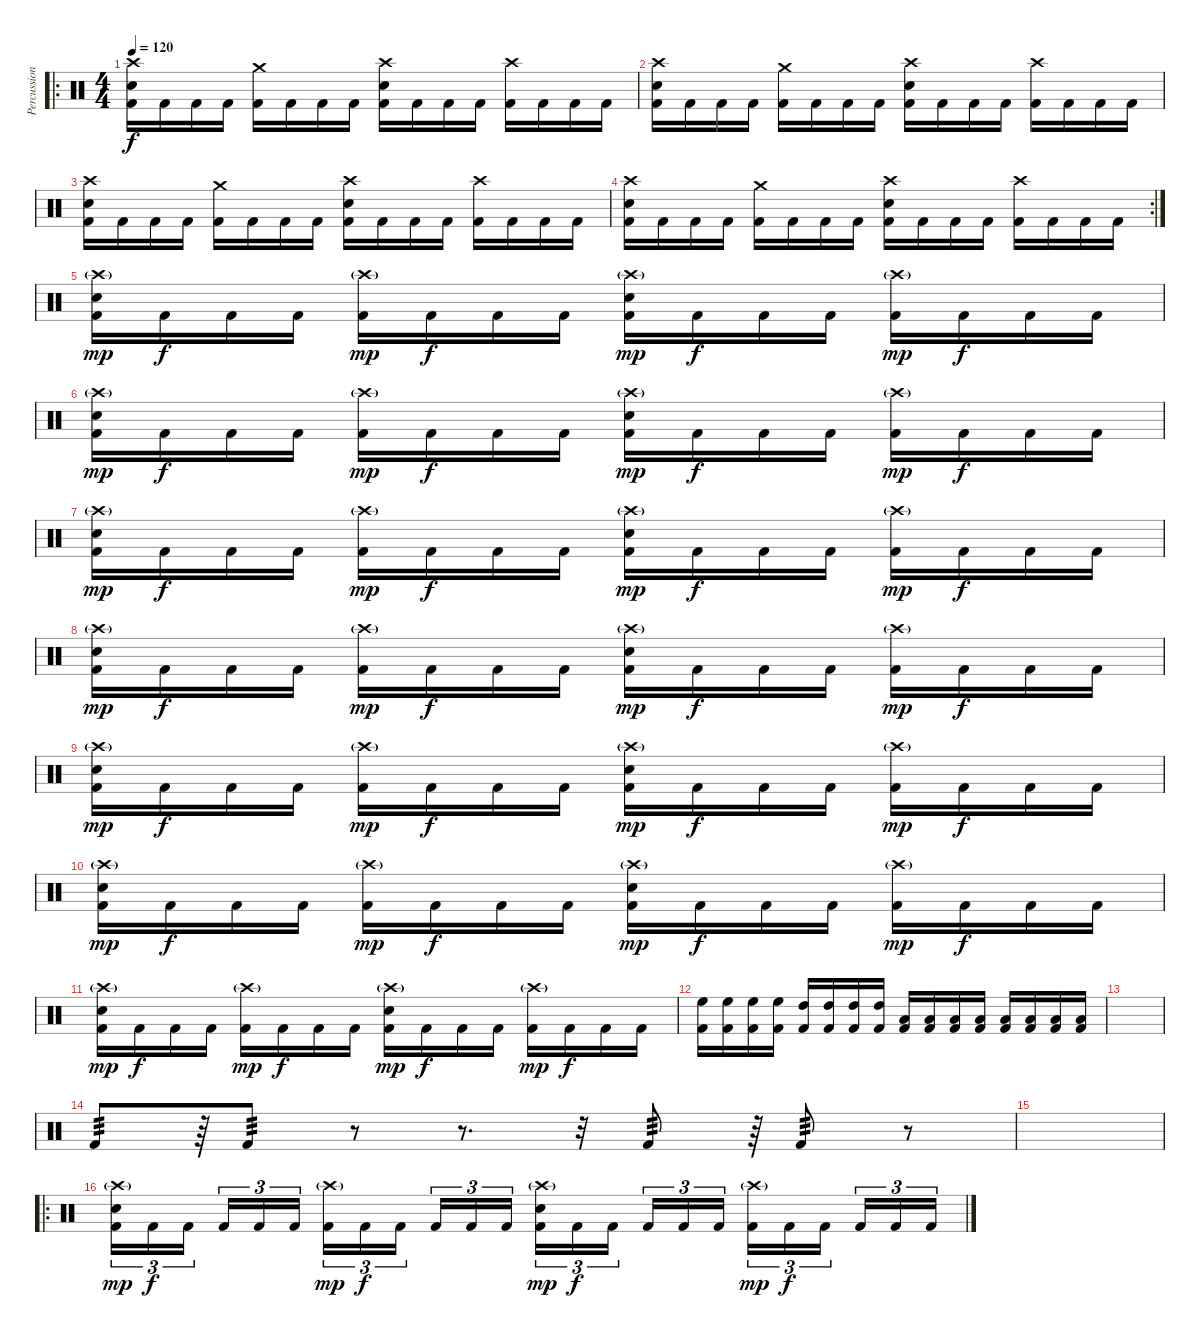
\track ("Percussion" "Percussion") {instrument percussion}
\staff {score}
\articulation defaults
\ro
\ts (4 4)
\tempo 120
\clef neutral
\ks c
("Crash high (hit)" "Snare (hit) 2" "Kick (hit) 2").16{dy f} "Kick (hit) 2".16 "Kick (hit) 2".16 "Kick (hit) 2".16 ("Crash medium (hit)" "Kick (hit) 2").16 "Kick (hit) 2".16 "Kick (hit) 2".16 "Kick (hit) 2".16 ("Crash high (hit)" "Snare (hit) 2" "Kick (hit) 2").16 "Kick (hit) 2".16 "Kick (hit) 2".16 "Kick (hit) 2".16 ("Crash high (hit)" "Kick (hit) 2").16 "Kick (hit) 2".16 "Kick (hit) 2".16 "Kick (hit) 2".16 |
("Crash high (hit)" "Snare (hit) 2" "Kick (hit) 2").16 "Kick (hit) 2".16 "Kick (hit) 2".16 "Kick (hit) 2".16 ("Crash medium (hit)" "Kick (hit) 2").16 "Kick (hit) 2".16 "Kick (hit) 2".16 "Kick (hit) 2".16 ("Crash high (hit)" "Snare (hit) 2" "Kick (hit) 2").16 "Kick (hit) 2".16 "Kick (hit) 2".16 "Kick (hit) 2".16 ("Crash high (hit)" "Kick (hit) 2").16 "Kick (hit) 2".16 "Kick (hit) 2".16 "Kick (hit) 2".16 |
("Crash high (hit)" "Snare (hit) 2" "Kick (hit) 2").16 "Kick (hit) 2".16 "Kick (hit) 2".16 "Kick (hit) 2".16 ("Crash medium (hit)" "Kick (hit) 2").16 "Kick (hit) 2".16 "Kick (hit) 2".16 "Kick (hit) 2".16 ("Crash high (hit)" "Snare (hit) 2" "Kick (hit) 2").16 "Kick (hit) 2".16 "Kick (hit) 2".16 "Kick (hit) 2".16 ("Crash high (hit)" "Kick (hit) 2").16 "Kick (hit) 2".16 "Kick (hit) 2".16 "Kick (hit) 2".16 |
\rc 2
("Crash high (hit)" "Snare (hit) 2" "Kick (hit) 2").16 "Kick (hit) 2".16 "Kick (hit) 2".16 "Kick (hit) 2".16 ("Crash medium (hit)" "Kick (hit) 2").16 "Kick (hit) 2".16 "Kick (hit) 2".16 "Kick (hit) 2".16 ("Crash high (hit)" "Snare (hit) 2" "Kick (hit) 2").16 "Kick (hit) 2".16 "Kick (hit) 2".16 "Kick (hit) 2".16 ("Crash high (hit)" "Kick (hit) 2").16 "Kick (hit) 2".16 "Kick (hit) 2".16 "Kick (hit) 2".16 |
("Crash high (hit)"{g} "Snare (hit) 2" "Kick (hit) 2").16{dy mp} "Kick (hit) 2".16{dy f} "Kick (hit) 2".16 "Kick (hit) 2".16 ("Crash high (hit)"{g} "Kick (hit) 2").16{dy mp} "Kick (hit) 2".16{dy f} "Kick (hit) 2".16 "Kick (hit) 2".16 ("Crash high (hit)"{g} "Snare (hit) 2" "Kick (hit) 2").16{dy mp} "Kick (hit) 2".16{dy f} "Kick (hit) 2".16 "Kick (hit) 2".16 ("Crash high (hit)"{g} "Kick (hit) 2").16{dy mp} "Kick (hit) 2".16{dy f} "Kick (hit) 2".16 "Kick (hit) 2".16 |
("Crash high (hit)"{g} "Snare (hit) 2" "Kick (hit) 2").16{dy mp} "Kick (hit) 2".16{dy f} "Kick (hit) 2".16 "Kick (hit) 2".16 ("Crash high (hit)"{g} "Kick (hit) 2").16{dy mp} "Kick (hit) 2".16{dy f} "Kick (hit) 2".16 "Kick (hit) 2".16 ("Crash high (hit)"{g} "Snare (hit) 2" "Kick (hit) 2").16{dy mp} "Kick (hit) 2".16{dy f} "Kick (hit) 2".16 "Kick (hit) 2".16 ("Crash high (hit)"{g} "Kick (hit) 2").16{dy mp} "Kick (hit) 2".16{dy f} "Kick (hit) 2".16 "Kick (hit) 2".16 |
("Crash high (hit)"{g} "Snare (hit) 2" "Kick (hit) 2").16{dy mp} "Kick (hit) 2".16{dy f} "Kick (hit) 2".16 "Kick (hit) 2".16 ("Crash high (hit)"{g} "Kick (hit) 2").16{dy mp} "Kick (hit) 2".16{dy f} "Kick (hit) 2".16 "Kick (hit) 2".16 ("Crash high (hit)"{g} "Snare (hit) 2" "Kick (hit) 2").16{dy mp} "Kick (hit) 2".16{dy f} "Kick (hit) 2".16 "Kick (hit) 2".16 ("Crash high (hit)"{g} "Kick (hit) 2").16{dy mp} "Kick (hit) 2".16{dy f} "Kick (hit) 2".16 "Kick (hit) 2".16 |
("Crash high (hit)"{g} "Snare (hit) 2" "Kick (hit) 2").16{dy mp} "Kick (hit) 2".16{dy f} "Kick (hit) 2".16 "Kick (hit) 2".16 ("Crash high (hit)"{g} "Kick (hit) 2").16{dy mp} "Kick (hit) 2".16{dy f} "Kick (hit) 2".16 "Kick (hit) 2".16 ("Crash high (hit)"{g} "Snare (hit) 2" "Kick (hit) 2").16{dy mp} "Kick (hit) 2".16{dy f} "Kick (hit) 2".16 "Kick (hit) 2".16 ("Crash high (hit)"{g} "Kick (hit) 2").16{dy mp} "Kick (hit) 2".16{dy f} "Kick (hit) 2".16 "Kick (hit) 2".16 |
("Crash high (hit)"{g} "Snare (hit) 2" "Kick (hit) 2").16{dy mp} "Kick (hit) 2".16{dy f} "Kick (hit) 2".16 "Kick (hit) 2".16 ("Crash high (hit)"{g} "Kick (hit) 2").16{dy mp} "Kick (hit) 2".16{dy f} "Kick (hit) 2".16 "Kick (hit) 2".16 ("Crash high (hit)"{g} "Snare (hit) 2" "Kick (hit) 2").16{dy mp} "Kick (hit) 2".16{dy f} "Kick (hit) 2".16 "Kick (hit) 2".16 ("Crash high (hit)"{g} "Kick (hit) 2").16{dy mp} "Kick (hit) 2".16{dy f} "Kick (hit) 2".16 "Kick (hit) 2".16 |
("Crash high (hit)"{g} "Snare (hit) 2" "Kick (hit) 2").16{dy mp} "Kick (hit) 2".16{dy f} "Kick (hit) 2".16 "Kick (hit) 2".16 ("Crash high (hit)"{g} "Kick (hit) 2").16{dy mp} "Kick (hit) 2".16{dy f} "Kick (hit) 2".16 "Kick (hit) 2".16 ("Crash high (hit)"{g} "Snare (hit) 2" "Kick (hit) 2").16{dy mp} "Kick (hit) 2".16{dy f} "Kick (hit) 2".16 "Kick (hit) 2".16 ("Crash high (hit)"{g} "Kick (hit) 2").16{dy mp} "Kick (hit) 2".16{dy f} "Kick (hit) 2".16 "Kick (hit) 2".16 |
("Crash high (hit)"{g} "Snare (hit) 2" "Kick (hit) 2").16{dy mp} "Kick (hit) 2".16{dy f} "Kick (hit) 2".16 "Kick (hit) 2".16 ("Crash high (hit)"{g} "Kick (hit) 2").16{dy mp} "Kick (hit) 2".16{dy f} "Kick (hit) 2".16 "Kick (hit) 2".16 ("Crash high (hit)"{g} "Snare (hit) 2" "Kick (hit) 2").16{dy mp} "Kick (hit) 2".16{dy f} "Kick (hit) 2".16 "Kick (hit) 2".16 ("Crash high (hit)"{g} "Kick (hit) 2").16{dy mp} "Kick (hit) 2".16{dy f} "Kick (hit) 2".16 "Kick (hit) 2".16 |
("High Floor Tom (hit)" "Kick (hit) 2").16 ("High Floor Tom (hit)" "Kick (hit) 2").16 ("High Floor Tom (hit)" "Kick (hit) 2").16 ("High Floor Tom (hit)" "Kick (hit) 2").16 ("High Tom (hit)" "Kick (hit) 2").16 ("High Tom (hit)" "Kick (hit) 2").16 ("High Tom (hit)" "Kick (hit) 2").16 ("High Tom (hit)" "Kick (hit) 2").16 ("Low Tom (hit)" "Kick (hit) 2").16 ("Low Tom (hit)" "Kick (hit) 2").16 ("Low Tom (hit)" "Kick (hit) 2").16 ("Low Tom (hit)" "Kick (hit) 2").16 ("Low Floor Tom (hit)" "Kick (hit) 2").16 ("Low Floor Tom (hit)" "Kick (hit) 2").16 ("Low Floor Tom (hit)" "Kick (hit) 2").16 ("Low Floor Tom (hit)" "Kick (hit) 2").16 |
|
"Kick (hit) 2".8{tp 3} r.64 "Kick (hit) 2".8{tp 3} r.8 r.8{d} r.32 "Kick (hit) 2".8{tp 3} r.64 "Kick (hit) 2".8{tp 3} r.8 |
|
\ro
("Crash high (hit)"{g} "Snare (hit) 2" "Kick (hit) 2").16{tu (3 2) dy mp} "Kick (hit) 2".16{tu (3 2) dy f} "Kick (hit) 2".16{tu (3 2) beam splitsecondary} "Kick (hit) 2".16{tu (3 2)} "Kick (hit) 2".16{tu (3 2)} "Kick (hit) 2".16{tu (3 2)} ("Crash high (hit)"{g} "Kick (hit) 2").16{tu (3 2) dy mp} "Kick (hit) 2".16{tu (3 2) dy f} "Kick (hit) 2".16{tu (3 2) beam splitsecondary} "Kick (hit) 2".16{tu (3 2)} "Kick (hit) 2".16{tu (3 2)} "Kick (hit) 2".16{tu (3 2)} ("Crash high (hit)"{g} "Snare (hit) 2" "Kick (hit) 2").16{tu (3 2) dy mp} "Kick (hit) 2".16{tu (3 2) dy f} "Kick (hit) 2".16{tu (3 2) beam splitsecondary} "Kick (hit) 2".16{tu (3 2)} "Kick (hit) 2".16{tu (3 2)} "Kick (hit) 2".16{tu (3 2)} ("Crash high (hit)"{g} "Kick (hit) 2").16{tu (3 2) dy mp} "Kick (hit) 2".16{tu (3 2) dy f} "Kick (hit) 2".16{tu (3 2) beam splitsecondary} "Kick (hit) 2".16{tu (3 2)} "Kick (hit) 2".16{tu (3 2)} "Kick (hit) 2".16{tu (3 2)}
